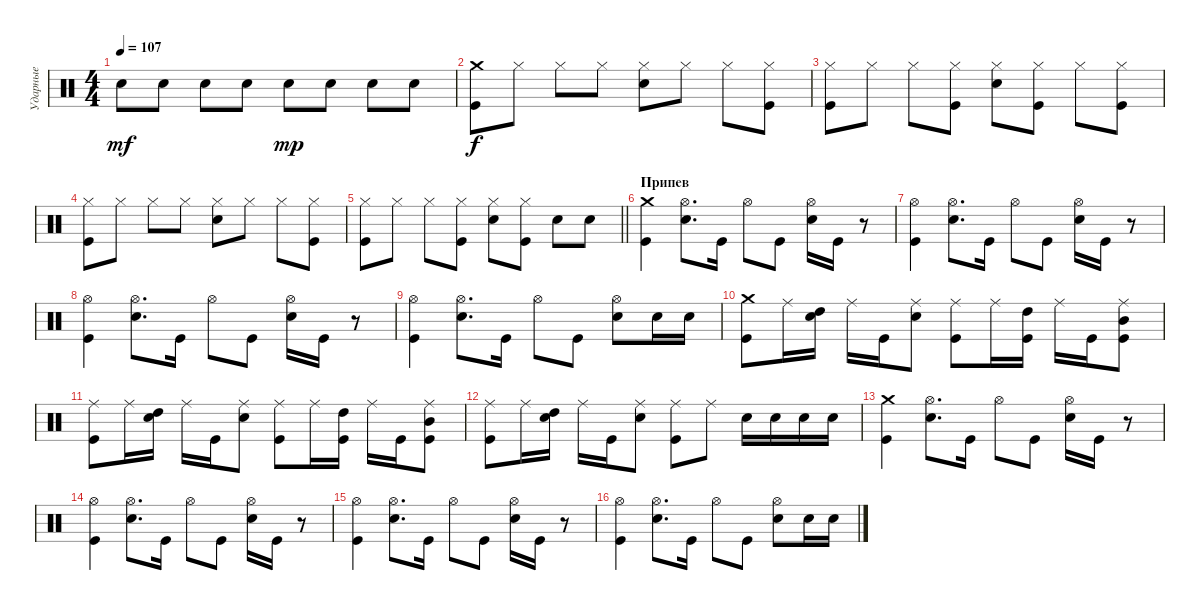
\track ("Ударные" "Ударные") {instrument percussion}
\staff {score}
\articulation defaults
\ts (4 4)
\tempo 107
\clef neutral
\ks c "Snare (hit) 2".8{dy mf} "Snare (hit) 2".8 "Snare (hit) 2".8 "Snare (hit) 2".8 "Snare (hit) 2".8{dy mp} "Snare (hit) 2".8 "Snare (hit) 2".8 "Snare (hit) 2".8
|
("Kick (hit)" "Crash medium (hit)").8{dy f} "Hi-Hat (closed)".8 "Hi-Hat (closed)".8 "Hi-Hat (closed)".8 ("Snare (hit) 2" "Hi-Hat (closed)").8 "Hi-Hat (closed)".8 "Hi-Hat (closed)".8 ("Kick (hit)" "Hi-Hat (closed)").8 |
("Kick (hit)" "Hi-Hat (closed)").8 "Hi-Hat (closed)".8 "Hi-Hat (closed)".8 ("Kick (hit)" "Hi-Hat (closed)").8 ("Snare (hit) 2" "Hi-Hat (closed)").8 ("Kick (hit)" "Hi-Hat (closed)").8 "Hi-Hat (closed)".8 ("Kick (hit)" "Hi-Hat (closed)").8 |
("Kick (hit)" "Hi-Hat (closed)").8 "Hi-Hat (closed)".8 "Hi-Hat (closed)".8 "Hi-Hat (closed)".8 ("Snare (hit) 2" "Hi-Hat (closed)").8 "Hi-Hat (closed)".8 "Hi-Hat (closed)".8 ("Kick (hit)" "Hi-Hat (closed)").8 |
\barLineRight lightlight
("Kick (hit)" "Hi-Hat (closed)").8 "Hi-Hat (closed)".8 "Hi-Hat (closed)".8 ("Kick (hit)" "Hi-Hat (closed)").8 ("Snare (hit) 2" "Hi-Hat (closed)").8 ("Kick (hit)" "Hi-Hat (closed)").8 "Snare (hit) 2".8 "Snare (hit) 2".8 |
\section ("" "Припев")
("Kick (hit)" "Crash medium (hit)").4 ("Snare (hit) 2" "Hi-Hat (open)").8{d} "Kick (hit)".16 "Hi-Hat (open)".8 "Kick (hit)".8 ("Snare (hit) 2" "Hi-Hat (open)").16 "Kick (hit)".16 r.8 |
("Kick (hit)" "Hi-Hat (open)").4 ("Snare (hit) 2" "Hi-Hat (open)").8{d} "Kick (hit)".16 "Hi-Hat (open)".8 "Kick (hit)".8 ("Snare (hit) 2" "Hi-Hat (open)").16 "Kick (hit)".16 r.8 |
("Kick (hit)" "Hi-Hat (open)").4 ("Snare (hit) 2" "Hi-Hat (open)").8{d} "Kick (hit)".16 "Hi-Hat (open)".8 "Kick (hit)".8 ("Snare (hit) 2" "Hi-Hat (open)").16 "Kick (hit)".16 r.8 |
("Kick (hit)" "Hi-Hat (open)").4 ("Snare (hit) 2" "Hi-Hat (open)").8{d} "Kick (hit)".16 "Hi-Hat (open)".8 "Kick (hit)".8 ("Snare (hit) 2" "Hi-Hat (open)").8 "Snare (hit) 2".16 "Snare (hit) 2".16 |
("Kick (hit)" "Crash medium (hit)").8 "Ride (middle)".16 ("Snare (hit) 2" "High Tom (hit)").16 "Ride (middle)".16 "Kick (hit)".16 ("Snare (hit) 2" "Ride (middle)").8 ("Kick (hit)" "Ride (middle)").8 "Ride (middle)".16 ("Kick (hit)" "High Tom (hit)").16 "Ride (middle)".16 "Kick (hit)".16 ("Kick (hit)" "Mid Tom (hit)" "Ride (middle)").8 |
("Kick (hit)" "Ride (middle)").8 "Ride (middle)".16 ("Snare (hit) 2" "High Tom (hit)").16 "Ride (middle)".16 "Kick (hit)".16 ("Snare (hit) 2" "Ride (middle)").8 ("Kick (hit)" "Ride (middle)").8 "Ride (middle)".16 ("Kick (hit)" "High Tom (hit)").16 "Ride (middle)".16 "Kick (hit)".16 ("Kick (hit)" "Mid Tom (hit)" "Ride (middle)").8 |
("Kick (hit)" "Ride (middle)").8 "Ride (middle)".16 ("Snare (hit) 2" "High Tom (hit)").16 "Ride (middle)".16 "Kick (hit)".16 ("Snare (hit) 2" "Ride (middle)").8 ("Kick (hit)" "Ride (middle)").8 "Ride (middle)".8 "Snare (hit) 2".16 "Snare (hit) 2".16 "Snare (hit) 2".16 "Snare (hit) 2".16 |
("Kick (hit)" "Crash medium (hit)").4 ("Snare (hit) 2" "Hi-Hat (open)").8{d} "Kick (hit)".16 "Hi-Hat (open)".8 "Kick (hit)".8 ("Snare (hit) 2" "Hi-Hat (open)").16 "Kick (hit)".16 r.8 |
("Kick (hit)" "Hi-Hat (open)").4 ("Snare (hit) 2" "Hi-Hat (open)").8{d} "Kick (hit)".16 "Hi-Hat (open)".8 "Kick (hit)".8 ("Snare (hit) 2" "Hi-Hat (open)").16 "Kick (hit)".16 r.8 |
("Kick (hit)" "Hi-Hat (open)").4 ("Snare (hit) 2" "Hi-Hat (open)").8{d} "Kick (hit)".16 "Hi-Hat (open)".8 "Kick (hit)".8 ("Snare (hit) 2" "Hi-Hat (open)").16 "Kick (hit)".16 r.8 |
("Kick (hit)" "Hi-Hat (open)").4 ("Snare (hit) 2" "Hi-Hat (open)").8{d} "Kick (hit)".16 "Hi-Hat (open)".8 "Kick (hit)".8 ("Snare (hit) 2" "Hi-Hat (open)").8 "Snare (hit) 2".16 "Snare (hit) 2".16
